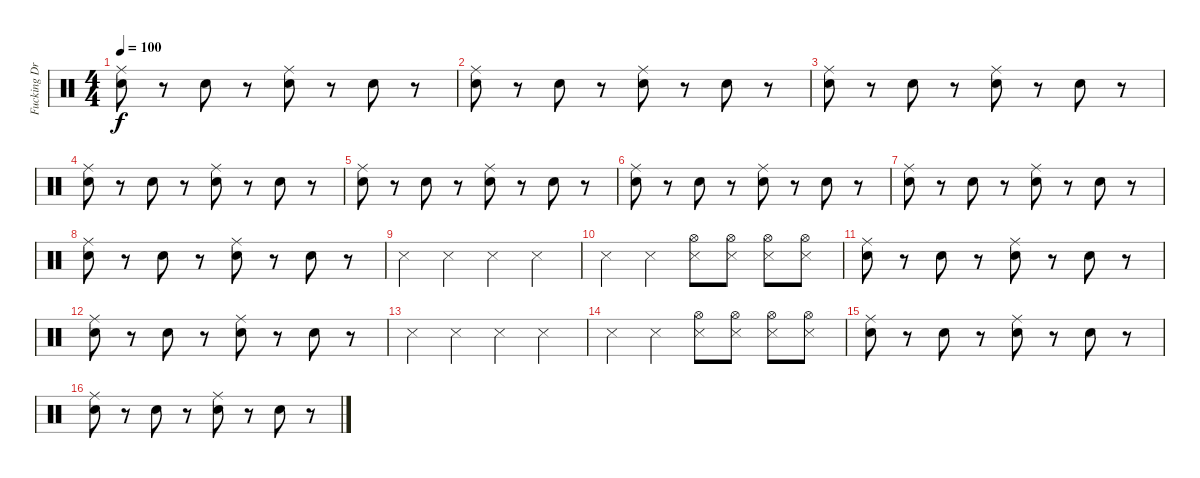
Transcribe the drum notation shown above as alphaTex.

\track ("Fucking Drums Thats It" "Fucking Dr") {instrument percussion}
\staff {score}
\articulation defaults
\ts (4 4)
\tempo 100
\clef neutral
\ks c
("Ride (middle)" "Snare (hit) 2").8{dy f} r.8 "Snare (hit) 2".8 r.8 ("Ride (middle)" "Snare (hit) 2").8 r.8 "Snare (hit) 2".8 r.8 |
("Ride (middle)" "Snare (hit) 2").8 r.8 "Snare (hit) 2".8 r.8 ("Ride (middle)" "Snare (hit) 2").8 r.8 "Snare (hit) 2".8 r.8 |
("Ride (middle)" "Snare (hit) 2").8 r.8 "Snare (hit) 2".8 r.8 ("Ride (middle)" "Snare (hit) 2").8 r.8 "Snare (hit) 2".8 r.8 |
("Ride (middle)" "Snare (hit) 2").8 r.8 "Snare (hit) 2".8 r.8 ("Ride (middle)" "Snare (hit) 2").8 r.8 "Snare (hit) 2".8 r.8 |
("Ride (middle)" "Snare (hit) 2").8 r.8 "Snare (hit) 2".8 r.8 ("Ride (middle)" "Snare (hit) 2").8 r.8 "Snare (hit) 2".8 r.8 |
("Ride (middle)" "Snare (hit) 2").8 r.8 "Snare (hit) 2".8 r.8 ("Ride (middle)" "Snare (hit) 2").8 r.8 "Snare (hit) 2".8 r.8 |
("Ride (middle)" "Snare (hit) 2").8 r.8 "Snare (hit) 2".8 r.8 ("Ride (middle)" "Snare (hit) 2").8 r.8 "Snare (hit) 2".8 r.8 |
("Ride (middle)" "Snare (hit) 2").8 r.8 "Snare (hit) 2".8 r.8 ("Ride (middle)" "Snare (hit) 2").8 r.8 "Snare (hit) 2".8 r.8 |
"Snare (side stick) 3".4 "Snare (side stick) 3".4 "Snare (side stick) 3".4 "Snare (side stick) 3".4 |
"Snare (side stick) 3".4 "Snare (side stick) 3".4 ("Snare (side stick) 3" "Hi-Hat (open)").8 ("Snare (side stick) 3" "Hi-Hat (open)").8 ("Snare (side stick) 3" "Hi-Hat (open)").8 ("Snare (side stick) 3" "Hi-Hat (open)").8 |
("Ride (middle)" "Snare (hit) 2").8 r.8 "Snare (hit) 2".8 r.8 ("Ride (middle)" "Snare (hit) 2").8 r.8 "Snare (hit) 2".8 r.8 |
("Ride (middle)" "Snare (hit) 2").8 r.8 "Snare (hit) 2".8 r.8 ("Ride (middle)" "Snare (hit) 2").8 r.8 "Snare (hit) 2".8 r.8 |
"Snare (side stick) 3".4 "Snare (side stick) 3".4 "Snare (side stick) 3".4 "Snare (side stick) 3".4 |
"Snare (side stick) 3".4 "Snare (side stick) 3".4 ("Snare (side stick) 3" "Hi-Hat (open)").8 ("Snare (side stick) 3" "Hi-Hat (open)").8 ("Snare (side stick) 3" "Hi-Hat (open)").8 ("Snare (side stick) 3" "Hi-Hat (open)").8 |
("Ride (middle)" "Snare (hit) 2").8 r.8 "Snare (hit) 2".8 r.8 ("Ride (middle)" "Snare (hit) 2").8 r.8 "Snare (hit) 2".8 r.8 |
("Ride (middle)" "Snare (hit) 2").8 r.8 "Snare (hit) 2".8 r.8 ("Ride (middle)" "Snare (hit) 2").8 r.8 "Snare (hit) 2".8 r.8
